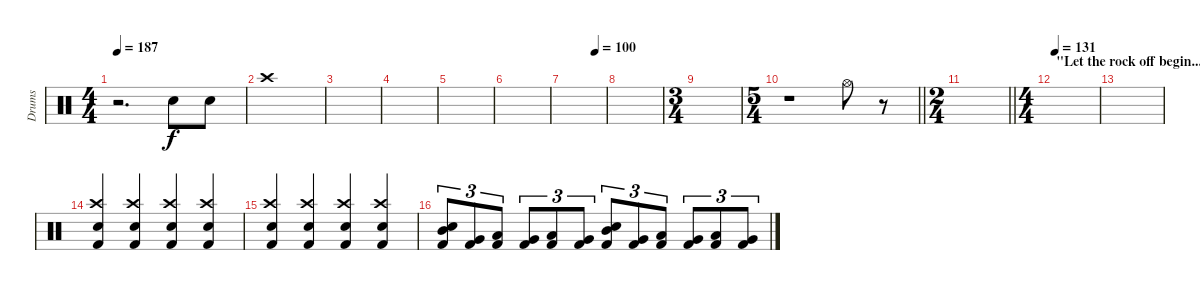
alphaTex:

\track ("Drums" "Drums") {instrument percussion}
\staff {score}
\articulation defaults
\ts (4 4)
\tempo 187
\clef neutral
\ks c
r.2{d dy f} "Electric Snare (hit)".8 "Electric Snare (hit)".8 |
"Crash high (hit)".1 |
|
|
|
|
\tempo (100 0.75)
|
|
\ts (3 4)
|
\ts (5 4)
\barLineRight lightlight
r.1 "Hi-Hat (open)".8 r.8 |
\ts (2 4)
\barLineRight lightlight
|
\ts (4 4)
\section ("" "\"Let the rock off begin...\"")
\tempo 131
|
|
("Kick (hit) 2" "Electric Snare (hit)" "Crash high (hit)").4 ("Kick (hit) 2" "Electric Snare (hit)" "Crash high (hit)").4 ("Kick (hit) 2" "Electric Snare (hit)" "Crash high (hit)").4 ("Kick (hit) 2" "Electric Snare (hit)" "Crash high (hit)").4 |
("Kick (hit) 2" "Electric Snare (hit)" "Crash high (hit)").4 ("Kick (hit) 2" "Electric Snare (hit)" "Crash high (hit)").4 ("Kick (hit) 2" "Electric Snare (hit)" "Crash high (hit)").4 ("Kick (hit) 2" "Electric Snare (hit)" "Crash high (hit)").4 |
("Kick (hit) 2" "Mid Tom (hit)" "Electric Snare (hit)").8{tu (3 2)} ("Kick (hit) 2" "Very Low Tom (hit)").8{tu (3 2)} ("Kick (hit) 2" "Low Tom (hit)").8{tu (3 2)} ("Kick (hit) 2" "Very Low Tom (hit)").8{tu (3 2)} ("Kick (hit) 2" "Low Tom (hit)").8{tu (3 2)} ("Kick (hit) 2" "Very Low Tom (hit)").8{tu (3 2)} ("Kick (hit) 2" "Mid Tom (hit)" "Electric Snare (hit)").8{tu (3 2)} ("Kick (hit) 2" "Very Low Tom (hit)").8{tu (3 2)} ("Kick (hit) 2" "Low Tom (hit)").8{tu (3 2)} ("Kick (hit) 2" "Very Low Tom (hit)").8{tu (3 2)} ("Kick (hit) 2" "Low Tom (hit)").8{tu (3 2)} ("Kick (hit) 2" "Very Low Tom (hit)").8{tu (3 2)}
